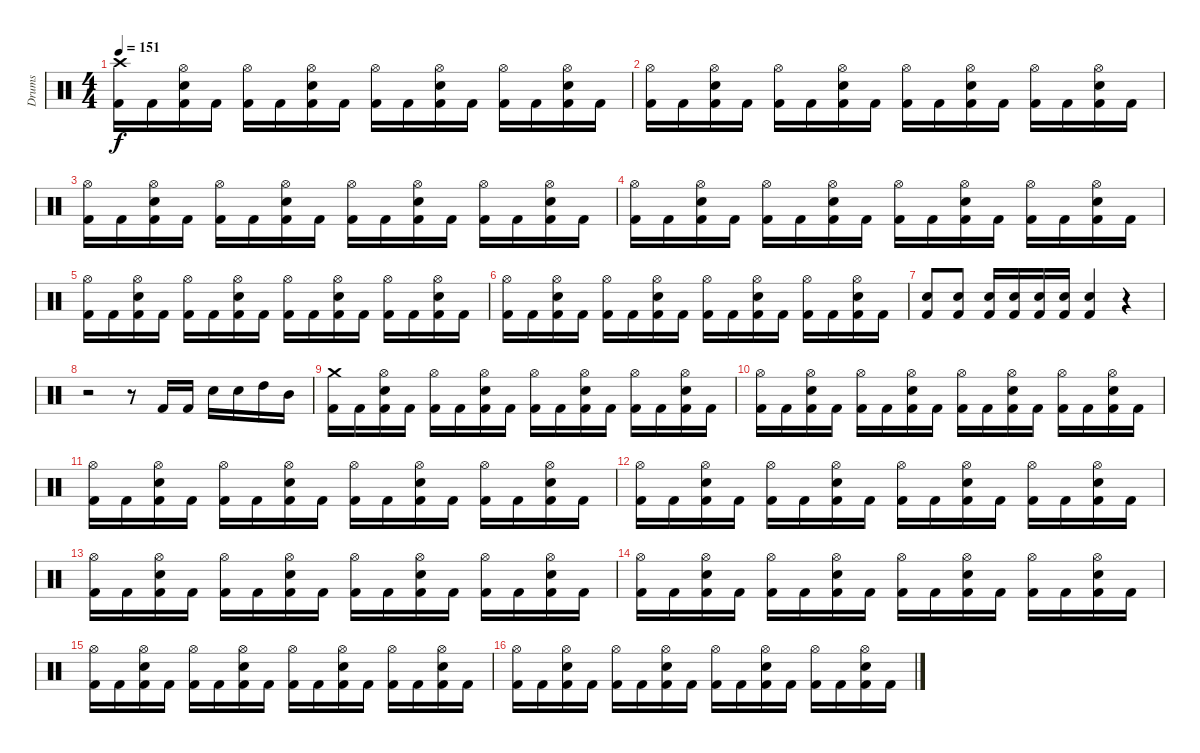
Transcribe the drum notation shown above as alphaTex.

\track ("Drums" "Drums") {instrument percussion}
\staff {score}
\articulation defaults
\ts (4 4)
\tempo 151
\clef neutral
\ks c
("Kick (hit) 2" "Crash high (hit)").16{dy f} "Kick (hit) 2".16 ("Kick (hit) 2" "Snare (hit) 2" "Hi-Hat (open)").16 "Kick (hit) 2".16 ("Kick (hit) 2" "Hi-Hat (open)").16 "Kick (hit) 2".16 ("Kick (hit) 2" "Snare (hit) 2" "Hi-Hat (open)").16 "Kick (hit) 2".16 ("Kick (hit) 2" "Hi-Hat (open)").16 "Kick (hit) 2".16 ("Kick (hit) 2" "Snare (hit) 2" "Hi-Hat (open)").16 "Kick (hit) 2".16 ("Kick (hit) 2" "Hi-Hat (open)").16 "Kick (hit) 2".16 ("Kick (hit) 2" "Snare (hit) 2" "Hi-Hat (open)").16 "Kick (hit) 2".16 |
("Kick (hit) 2" "Hi-Hat (open)").16 "Kick (hit) 2".16 ("Kick (hit) 2" "Snare (hit) 2" "Hi-Hat (open)").16 "Kick (hit) 2".16 ("Kick (hit) 2" "Hi-Hat (open)").16 "Kick (hit) 2".16 ("Kick (hit) 2" "Snare (hit) 2" "Hi-Hat (open)").16 "Kick (hit) 2".16 ("Kick (hit) 2" "Hi-Hat (open)").16 "Kick (hit) 2".16 ("Kick (hit) 2" "Snare (hit) 2" "Hi-Hat (open)").16 "Kick (hit) 2".16 ("Kick (hit) 2" "Hi-Hat (open)").16 "Kick (hit) 2".16 ("Kick (hit) 2" "Snare (hit) 2" "Hi-Hat (open)").16 "Kick (hit) 2".16 |
("Kick (hit) 2" "Hi-Hat (open)").16 "Kick (hit) 2".16 ("Kick (hit) 2" "Snare (hit) 2" "Hi-Hat (open)").16 "Kick (hit) 2".16 ("Kick (hit) 2" "Hi-Hat (open)").16 "Kick (hit) 2".16 ("Kick (hit) 2" "Snare (hit) 2" "Hi-Hat (open)").16 "Kick (hit) 2".16 ("Kick (hit) 2" "Hi-Hat (open)").16 "Kick (hit) 2".16 ("Kick (hit) 2" "Snare (hit) 2" "Hi-Hat (open)").16 "Kick (hit) 2".16 ("Kick (hit) 2" "Hi-Hat (open)").16 "Kick (hit) 2".16 ("Kick (hit) 2" "Snare (hit) 2" "Hi-Hat (open)").16 "Kick (hit) 2".16 |
("Kick (hit) 2" "Hi-Hat (open)").16 "Kick (hit) 2".16 ("Kick (hit) 2" "Snare (hit) 2" "Hi-Hat (open)").16 "Kick (hit) 2".16 ("Kick (hit) 2" "Hi-Hat (open)").16 "Kick (hit) 2".16 ("Kick (hit) 2" "Snare (hit) 2" "Hi-Hat (open)").16 "Kick (hit) 2".16 ("Kick (hit) 2" "Hi-Hat (open)").16 "Kick (hit) 2".16 ("Kick (hit) 2" "Snare (hit) 2" "Hi-Hat (open)").16 "Kick (hit) 2".16 ("Kick (hit) 2" "Hi-Hat (open)").16 "Kick (hit) 2".16 ("Kick (hit) 2" "Snare (hit) 2" "Hi-Hat (open)").16 "Kick (hit) 2".16 |
("Kick (hit) 2" "Hi-Hat (open)").16 "Kick (hit) 2".16 ("Kick (hit) 2" "Snare (hit) 2" "Hi-Hat (open)").16 "Kick (hit) 2".16 ("Kick (hit) 2" "Hi-Hat (open)").16 "Kick (hit) 2".16 ("Kick (hit) 2" "Snare (hit) 2" "Hi-Hat (open)").16 "Kick (hit) 2".16 ("Kick (hit) 2" "Hi-Hat (open)").16 "Kick (hit) 2".16 ("Kick (hit) 2" "Snare (hit) 2" "Hi-Hat (open)").16 "Kick (hit) 2".16 ("Kick (hit) 2" "Hi-Hat (open)").16 "Kick (hit) 2".16 ("Kick (hit) 2" "Snare (hit) 2" "Hi-Hat (open)").16 "Kick (hit) 2".16 |
("Kick (hit) 2" "Hi-Hat (open)").16 "Kick (hit) 2".16 ("Kick (hit) 2" "Snare (hit) 2" "Hi-Hat (open)").16 "Kick (hit) 2".16 ("Kick (hit) 2" "Hi-Hat (open)").16 "Kick (hit) 2".16 ("Kick (hit) 2" "Snare (hit) 2" "Hi-Hat (open)").16 "Kick (hit) 2".16 ("Kick (hit) 2" "Hi-Hat (open)").16 "Kick (hit) 2".16 ("Kick (hit) 2" "Snare (hit) 2" "Hi-Hat (open)").16 "Kick (hit) 2".16 ("Kick (hit) 2" "Hi-Hat (open)").16 "Kick (hit) 2".16 ("Kick (hit) 2" "Snare (hit) 2" "Hi-Hat (open)").16 "Kick (hit) 2".16 |
("Kick (hit) 2" "Snare (hit) 2").8 ("Kick (hit) 2" "Snare (hit) 2").8 ("Kick (hit) 2" "Snare (hit) 2").16 ("Kick (hit) 2" "Snare (hit) 2").16 ("Kick (hit) 2" "Snare (hit) 2").16 ("Kick (hit) 2" "Snare (hit) 2").16 ("Kick (hit) 2" "Snare (hit) 2").4 r.4 |
r.2 r.8 "Kick (hit) 2".16 "Kick (hit) 2".16 "Snare (hit) 2".16 "Snare (hit) 2".16 "High Tom (hit)".16 "Mid Tom (hit)".16 |
\section ("" "")
("Kick (hit) 2" "Crash medium (hit)").16 "Kick (hit) 2".16 ("Kick (hit) 2" "Snare (hit) 2" "Hi-Hat (open)").16 "Kick (hit) 2".16 ("Kick (hit) 2" "Hi-Hat (open)").16 "Kick (hit) 2".16 ("Kick (hit) 2" "Snare (hit) 2" "Hi-Hat (open)").16 "Kick (hit) 2".16 ("Kick (hit) 2" "Hi-Hat (open)").16 "Kick (hit) 2".16 ("Kick (hit) 2" "Snare (hit) 2" "Hi-Hat (open)").16 "Kick (hit) 2".16 ("Kick (hit) 2" "Hi-Hat (open)").16 "Kick (hit) 2".16 ("Kick (hit) 2" "Snare (hit) 2" "Hi-Hat (open)").16 "Kick (hit) 2".16 |
("Kick (hit) 2" "Hi-Hat (open)").16 "Kick (hit) 2".16 ("Kick (hit) 2" "Snare (hit) 2" "Hi-Hat (open)").16 "Kick (hit) 2".16 ("Kick (hit) 2" "Hi-Hat (open)").16 "Kick (hit) 2".16 ("Kick (hit) 2" "Snare (hit) 2" "Hi-Hat (open)").16 "Kick (hit) 2".16 ("Kick (hit) 2" "Hi-Hat (open)").16 "Kick (hit) 2".16 ("Kick (hit) 2" "Snare (hit) 2" "Hi-Hat (open)").16 "Kick (hit) 2".16 ("Kick (hit) 2" "Hi-Hat (open)").16 "Kick (hit) 2".16 ("Kick (hit) 2" "Snare (hit) 2" "Hi-Hat (open)").16 "Kick (hit) 2".16 |
("Kick (hit) 2" "Hi-Hat (open)").16 "Kick (hit) 2".16 ("Kick (hit) 2" "Snare (hit) 2" "Hi-Hat (open)").16 "Kick (hit) 2".16 ("Kick (hit) 2" "Hi-Hat (open)").16 "Kick (hit) 2".16 ("Kick (hit) 2" "Snare (hit) 2" "Hi-Hat (open)").16 "Kick (hit) 2".16 ("Kick (hit) 2" "Hi-Hat (open)").16 "Kick (hit) 2".16 ("Kick (hit) 2" "Snare (hit) 2" "Hi-Hat (open)").16 "Kick (hit) 2".16 ("Kick (hit) 2" "Hi-Hat (open)").16 "Kick (hit) 2".16 ("Kick (hit) 2" "Snare (hit) 2" "Hi-Hat (open)").16 "Kick (hit) 2".16 |
("Kick (hit) 2" "Hi-Hat (open)").16 "Kick (hit) 2".16 ("Kick (hit) 2" "Snare (hit) 2" "Hi-Hat (open)").16 "Kick (hit) 2".16 ("Kick (hit) 2" "Hi-Hat (open)").16 "Kick (hit) 2".16 ("Kick (hit) 2" "Snare (hit) 2" "Hi-Hat (open)").16 "Kick (hit) 2".16 ("Kick (hit) 2" "Hi-Hat (open)").16 "Kick (hit) 2".16 ("Kick (hit) 2" "Snare (hit) 2" "Hi-Hat (open)").16 "Kick (hit) 2".16 ("Kick (hit) 2" "Hi-Hat (open)").16 "Kick (hit) 2".16 ("Kick (hit) 2" "Snare (hit) 2" "Hi-Hat (open)").16 "Kick (hit) 2".16 |
("Kick (hit) 2" "Hi-Hat (open)").16 "Kick (hit) 2".16 ("Kick (hit) 2" "Snare (hit) 2" "Hi-Hat (open)").16 "Kick (hit) 2".16 ("Kick (hit) 2" "Hi-Hat (open)").16 "Kick (hit) 2".16 ("Kick (hit) 2" "Snare (hit) 2" "Hi-Hat (open)").16 "Kick (hit) 2".16 ("Kick (hit) 2" "Hi-Hat (open)").16 "Kick (hit) 2".16 ("Kick (hit) 2" "Snare (hit) 2" "Hi-Hat (open)").16 "Kick (hit) 2".16 ("Kick (hit) 2" "Hi-Hat (open)").16 "Kick (hit) 2".16 ("Kick (hit) 2" "Snare (hit) 2" "Hi-Hat (open)").16 "Kick (hit) 2".16 |
("Kick (hit) 2" "Hi-Hat (open)").16 "Kick (hit) 2".16 ("Kick (hit) 2" "Snare (hit) 2" "Hi-Hat (open)").16 "Kick (hit) 2".16 ("Kick (hit) 2" "Hi-Hat (open)").16 "Kick (hit) 2".16 ("Kick (hit) 2" "Snare (hit) 2" "Hi-Hat (open)").16 "Kick (hit) 2".16 ("Kick (hit) 2" "Hi-Hat (open)").16 "Kick (hit) 2".16 ("Kick (hit) 2" "Snare (hit) 2" "Hi-Hat (open)").16 "Kick (hit) 2".16 ("Kick (hit) 2" "Hi-Hat (open)").16 "Kick (hit) 2".16 ("Kick (hit) 2" "Snare (hit) 2" "Hi-Hat (open)").16 "Kick (hit) 2".16 |
("Kick (hit) 2" "Hi-Hat (open)").16 "Kick (hit) 2".16 ("Kick (hit) 2" "Snare (hit) 2" "Hi-Hat (open)").16 "Kick (hit) 2".16 ("Kick (hit) 2" "Hi-Hat (open)").16 "Kick (hit) 2".16 ("Kick (hit) 2" "Snare (hit) 2" "Hi-Hat (open)").16 "Kick (hit) 2".16 ("Kick (hit) 2" "Hi-Hat (open)").16 "Kick (hit) 2".16 ("Kick (hit) 2" "Snare (hit) 2" "Hi-Hat (open)").16 "Kick (hit) 2".16 ("Kick (hit) 2" "Hi-Hat (open)").16 "Kick (hit) 2".16 ("Kick (hit) 2" "Snare (hit) 2" "Hi-Hat (open)").16 "Kick (hit) 2".16 |
("Kick (hit) 2" "Hi-Hat (open)").16 "Kick (hit) 2".16 ("Kick (hit) 2" "Snare (hit) 2" "Hi-Hat (open)").16 "Kick (hit) 2".16 ("Kick (hit) 2" "Hi-Hat (open)").16 "Kick (hit) 2".16 ("Kick (hit) 2" "Snare (hit) 2" "Hi-Hat (open)").16 "Kick (hit) 2".16 ("Kick (hit) 2" "Hi-Hat (open)").16 "Kick (hit) 2".16 ("Kick (hit) 2" "Snare (hit) 2" "Hi-Hat (open)").16 "Kick (hit) 2".16 ("Kick (hit) 2" "Hi-Hat (open)").16 "Kick (hit) 2".16 ("Kick (hit) 2" "Snare (hit) 2" "Hi-Hat (open)").16 "Kick (hit) 2".16
